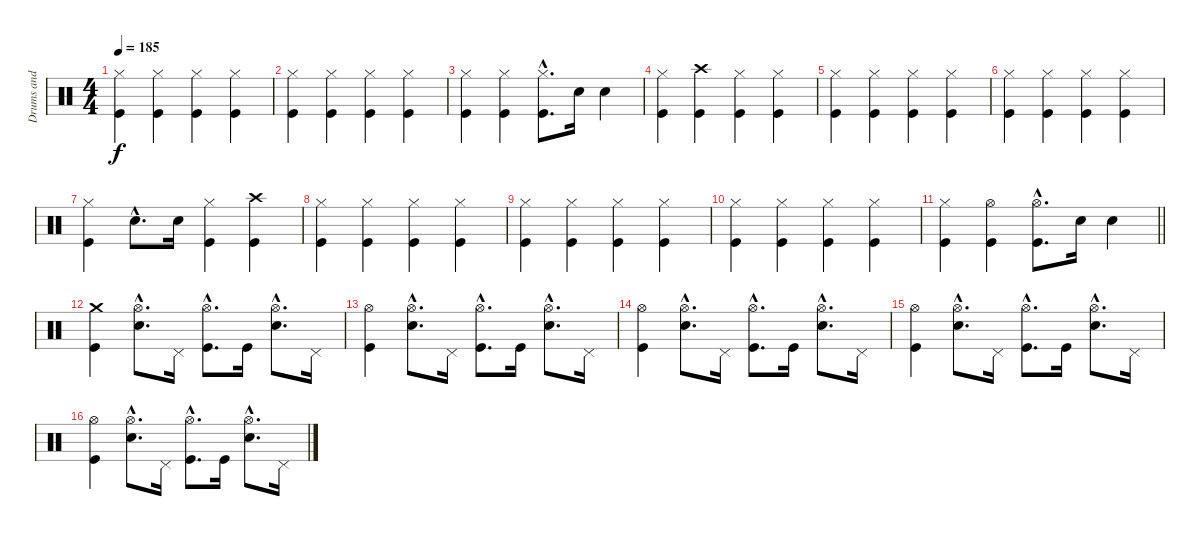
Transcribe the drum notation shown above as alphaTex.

\track ("Drums and percussion" "Drums and ") {instrument percussion}
\staff {score}
\articulation defaults
\ts (4 4)
\tempo 185
\clef neutral
\ks c
("Hi-Hat (closed)" "Kick (hit)").4{dy f} ("Hi-Hat (closed)" "Kick (hit)").4 ("Hi-Hat (closed)" "Kick (hit)").4 ("Hi-Hat (closed)" "Kick (hit)").4 |
("Hi-Hat (closed)" "Kick (hit)").4 ("Hi-Hat (closed)" "Kick (hit)").4 ("Hi-Hat (closed)" "Kick (hit)").4 ("Hi-Hat (closed)" "Kick (hit)").4 |
("Hi-Hat (closed)" "Kick (hit)").4 ("Hi-Hat (closed)" "Kick (hit)").4 ("Hi-Hat (closed)"{hac} "Kick (hit)"{hac}).8{d} "Snare (hit) 2".16 "Snare (hit) 2".4 |
("Hi-Hat (closed)" "Kick (hit)").4 ("Crash high (hit)" "Kick (hit)").4 ("Hi-Hat (closed)" "Kick (hit)").4 ("Hi-Hat (closed)" "Kick (hit)").4 |
("Hi-Hat (closed)" "Kick (hit)").4 ("Hi-Hat (closed)" "Kick (hit)").4 ("Hi-Hat (closed)" "Kick (hit)").4 ("Hi-Hat (closed)" "Kick (hit)").4 |
("Hi-Hat (closed)" "Kick (hit)").4 ("Hi-Hat (closed)" "Kick (hit)").4 ("Hi-Hat (closed)" "Kick (hit)").4 ("Hi-Hat (closed)" "Kick (hit)").4 |
("Hi-Hat (closed)" "Kick (hit)").4 "Snare (hit) 2"{hac}.8{d} "Snare (hit) 2".16 ("Hi-Hat (closed)" "Kick (hit)").4 ("Crash high (hit)" "Kick (hit)").4 |
("Hi-Hat (closed)" "Kick (hit)").4 ("Hi-Hat (closed)" "Kick (hit)").4 ("Hi-Hat (closed)" "Kick (hit)").4 ("Hi-Hat (closed)" "Kick (hit)").4 |
("Hi-Hat (closed)" "Kick (hit)").4 ("Hi-Hat (closed)" "Kick (hit)").4 ("Hi-Hat (closed)" "Kick (hit)").4 ("Hi-Hat (closed)" "Kick (hit)").4 |
("Hi-Hat (closed)" "Kick (hit)").4 ("Hi-Hat (closed)" "Kick (hit)").4 ("Hi-Hat (closed)" "Kick (hit)").4 ("Hi-Hat (closed)" "Kick (hit)").4 |
\barLineRight lightlight
("Hi-Hat (closed)" "Kick (hit)").4 ("Hi-Hat (open)" "Kick (hit)").4 ("Hi-Hat (open)"{hac} "Kick (hit)"{hac}).8{d} "Snare (hit) 2".16 "Snare (hit) 2".4 |
("Crash medium (hit)" "Kick (hit)").4 ("Hi-Hat (open)"{hac} "Snare (hit) 2"{hac}).8{d} "Pedal Hi-Hat (hit)".16 ("Hi-Hat (open)"{hac} "Kick (hit)"{hac}).8{d} "Kick (hit)".16 ("Hi-Hat (open)"{hac} "Snare (hit) 2"{hac}).8{d} "Pedal Hi-Hat (hit)".16 |
("Hi-Hat (open)" "Kick (hit)").4 ("Hi-Hat (open)"{hac} "Snare (hit) 2"{hac}).8{d} "Pedal Hi-Hat (hit)".16 ("Hi-Hat (open)"{hac} "Kick (hit)"{hac}).8{d} "Kick (hit)".16 ("Hi-Hat (open)"{hac} "Snare (hit) 2"{hac}).8{d} "Pedal Hi-Hat (hit)".16 |
("Hi-Hat (open)" "Kick (hit)").4 ("Hi-Hat (open)"{hac} "Snare (hit) 2"{hac}).8{d} "Pedal Hi-Hat (hit)".16 ("Hi-Hat (open)"{hac} "Kick (hit)"{hac}).8{d} "Kick (hit)".16 ("Hi-Hat (open)"{hac} "Snare (hit) 2"{hac}).8{d} "Pedal Hi-Hat (hit)".16 |
("Hi-Hat (open)" "Kick (hit)").4 ("Hi-Hat (open)"{hac} "Snare (hit) 2"{hac}).8{d} "Pedal Hi-Hat (hit)".16 ("Hi-Hat (open)"{hac} "Kick (hit)"{hac}).8{d} "Kick (hit)".16 ("Hi-Hat (open)"{hac} "Snare (hit) 2"{hac}).8{d} "Pedal Hi-Hat (hit)".16 |
("Hi-Hat (open)" "Kick (hit)").4 ("Hi-Hat (open)"{hac} "Snare (hit) 2"{hac}).8{d} "Pedal Hi-Hat (hit)".16 ("Hi-Hat (open)"{hac} "Kick (hit)"{hac}).8{d} "Kick (hit)".16 ("Hi-Hat (open)"{hac} "Snare (hit) 2"{hac}).8{d} "Pedal Hi-Hat (hit)".16
